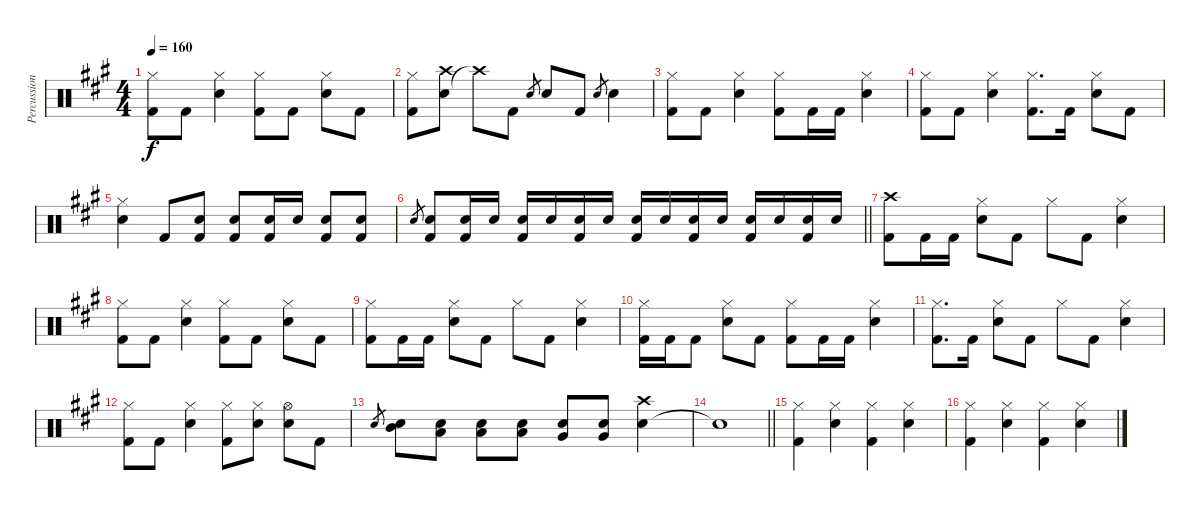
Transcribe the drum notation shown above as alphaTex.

\track ("Percussions" "Percussion") {instrument percussion}
\staff {score}
\articulation defaults
\ts (4 4)
\tempo 160
\clef neutral
\ks a
("Hi-Hat (closed)" "Kick (hit) 2").8{dy f} "Kick (hit) 2".8 ("Hi-Hat (closed)" "Snare (hit) 2").4 ("Hi-Hat (closed)" "Kick (hit) 2").8 "Kick (hit) 2".8 ("Hi-Hat (closed)" "Snare (hit) 2").8 "Kick (hit) 2".8 |
("Hi-Hat (closed)" "Kick (hit) 2").8 ("Snare (hit) 2" "Crash high (hit)").8 "Crash high (hit)"{t}.8 "Kick (hit) 2".8 "Snare (hit) 2".8{gr} "Snare (hit) 2".8 "Kick (hit) 2".8 "Snare (hit) 2".8{gr} "Snare (hit) 2".4 |
("Hi-Hat (closed)" "Kick (hit) 2").8 "Kick (hit) 2".8 ("Hi-Hat (closed)" "Snare (hit) 2").4 ("Hi-Hat (closed)" "Kick (hit) 2").8 "Kick (hit) 2".16 "Kick (hit) 2".16 ("Hi-Hat (closed)" "Snare (hit) 2").4 |
("Hi-Hat (closed)" "Kick (hit) 2").8 "Kick (hit) 2".8 ("Hi-Hat (closed)" "Snare (hit) 2").4 ("Hi-Hat (closed)" "Kick (hit) 2").8{d} "Kick (hit) 2".16 ("Hi-Hat (closed)" "Snare (hit) 2").8 "Kick (hit) 2".8 |
("Hi-Hat (closed)" "Snare (hit) 2").4 "Kick (hit) 2".8 ("Snare (hit) 2" "Kick (hit) 2").8 ("Snare (hit) 2" "Kick (hit) 2").8 ("Snare (hit) 2" "Kick (hit) 2").16 "Snare (hit) 2".16 ("Snare (hit) 2" "Kick (hit) 2").8 ("Snare (hit) 2" "Kick (hit) 2").8 |
\barLineRight lightlight "Snare (hit) 2".8{gr}
("Snare (hit) 2" "Kick (hit) 2").8 ("Snare (hit) 2" "Kick (hit) 2").16 "Snare (hit) 2".16 ("Snare (hit) 2" "Kick (hit) 2").16 "Snare (hit) 2".16 ("Snare (hit) 2" "Kick (hit) 2").16 "Snare (hit) 2".16 ("Snare (hit) 2" "Kick (hit) 2").16 "Snare (hit) 2".16 ("Snare (hit) 2" "Kick (hit) 2").16 "Snare (hit) 2".16 ("Snare (hit) 2" "Kick (hit) 2").16 "Snare (hit) 2".16 ("Snare (hit) 2" "Kick (hit) 2").16 "Snare (hit) 2".16 |
("Kick (hit) 2" "Crash high (hit)").8 "Kick (hit) 2".16 "Kick (hit) 2".16 ("Hi-Hat (closed)" "Snare (hit) 2").8 "Kick (hit) 2".8 "Hi-Hat (closed)".8 "Kick (hit) 2".8 ("Hi-Hat (closed)" "Snare (hit) 2").4 |
("Hi-Hat (closed)" "Kick (hit) 2").8 "Kick (hit) 2".8 ("Hi-Hat (closed)" "Snare (hit) 2").4 ("Hi-Hat (closed)" "Kick (hit) 2").8 "Kick (hit) 2".8 ("Hi-Hat (closed)" "Snare (hit) 2").8 "Kick (hit) 2".8 |
("Hi-Hat (closed)" "Kick (hit) 2").8 "Kick (hit) 2".16 "Kick (hit) 2".16 ("Hi-Hat (closed)" "Snare (hit) 2").8 "Kick (hit) 2".8 "Hi-Hat (closed)".8 "Kick (hit) 2".8 ("Hi-Hat (closed)" "Snare (hit) 2").4 |
("Hi-Hat (closed)" "Kick (hit) 2").16 "Kick (hit) 2".16 "Kick (hit) 2".8 ("Hi-Hat (closed)" "Snare (hit) 2").8 "Kick (hit) 2".8 ("Hi-Hat (closed)" "Kick (hit) 2").8 "Kick (hit) 2".16 "Kick (hit) 2".16 ("Hi-Hat (closed)" "Snare (hit) 2").4 |
("Hi-Hat (closed)" "Kick (hit) 2").8{d} "Kick (hit) 2".16 ("Hi-Hat (closed)" "Snare (hit) 2").8 "Kick (hit) 2".8 "Hi-Hat (closed)".8 "Kick (hit) 2".8 ("Hi-Hat (closed)" "Snare (hit) 2").4 |
("Hi-Hat (closed)" "Kick (hit) 2").8 "Kick (hit) 2".8 ("Hi-Hat (closed)" "Snare (hit) 2").4 ("Hi-Hat (closed)" "Kick (hit) 2").8 ("Hi-Hat (closed)" "Snare (hit) 2").8 ("Hi-Hat (open)" "Snare (hit) 2").8 "Kick (hit) 2".8 |
"Snare (hit) 2".8{gr} ("Snare (hit) 2" "Mid Tom (hit)").8 ("Snare (hit) 2" "Low Tom (hit)").8 ("Snare (hit) 2" "Low Tom (hit)").8 ("Snare (hit) 2" "Low Tom (hit)").8 ("Snare (hit) 2" "Very Low Tom (hit)").8 ("Snare (hit) 2" "Very Low Tom (hit)").8 ("Snare (hit) 2" "Crash high (hit)").4 |
\barLineRight lightlight "Snare (hit)"{t}.1
|
("Hi-Hat (closed)" "Kick (hit) 2").4 ("Hi-Hat (closed)" "Snare (hit) 2").4 ("Hi-Hat (closed)" "Kick (hit) 2").4 ("Hi-Hat (closed)" "Snare (hit) 2").4 |
("Hi-Hat (closed)" "Kick (hit) 2").4 ("Hi-Hat (closed)" "Snare (hit) 2").4 ("Hi-Hat (closed)" "Kick (hit) 2").4 ("Hi-Hat (closed)" "Snare (hit) 2").4
